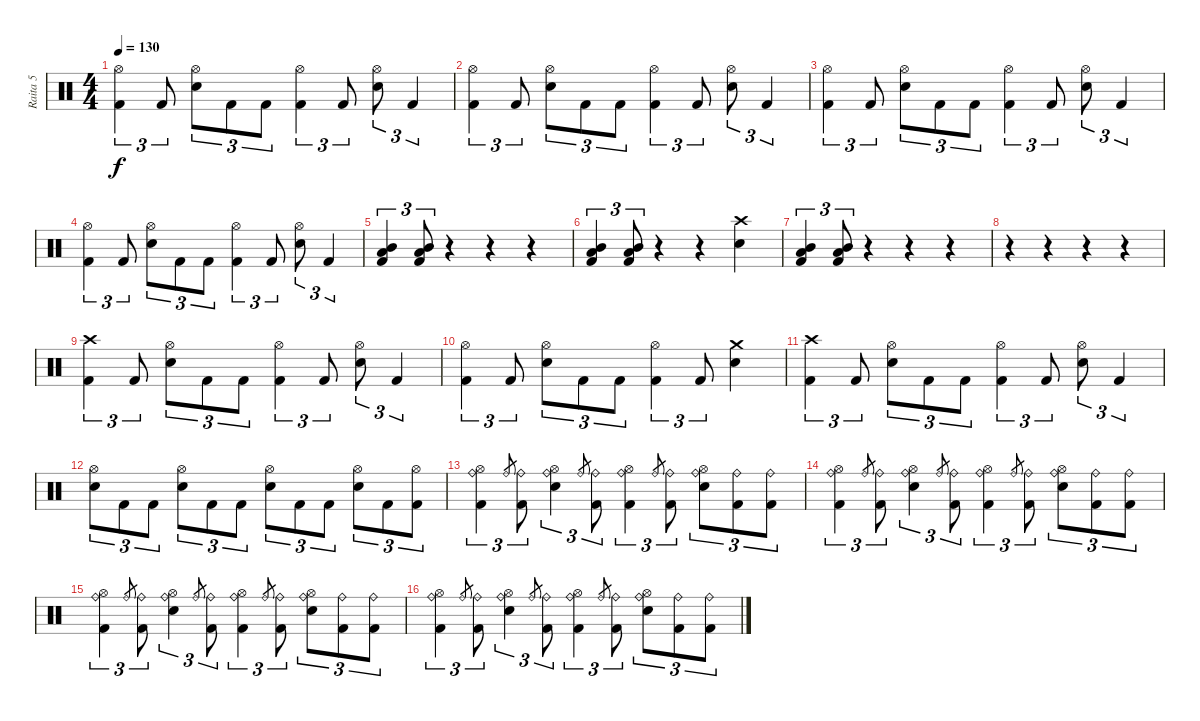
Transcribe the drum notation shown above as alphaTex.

\track ("Raita 5" "Raita 5") {instrument percussion}
\staff {score}
\articulation defaults
\ts (4 4)
\tempo 130
\clef neutral
\ks c
("Hi-Hat (open)" "Kick (hit) 2").4{tu (3 2) dy f} "Kick (hit) 2".8{tu (3 2)} ("Hi-Hat (open)" "Snare (hit) 2").8{tu (3 2)} "Kick (hit) 2".8{tu (3 2)} "Kick (hit) 2".8{tu (3 2)} ("Hi-Hat (open)" "Kick (hit) 2").4{tu (3 2)} "Kick (hit) 2".8{tu (3 2)} ("Hi-Hat (open)" "Snare (hit) 2").8{tu (3 2)} "Kick (hit) 2".4{tu (3 2)} |
("Hi-Hat (open)" "Kick (hit) 2").4{tu (3 2)} "Kick (hit) 2".8{tu (3 2)} ("Hi-Hat (open)" "Snare (hit) 2").8{tu (3 2)} "Kick (hit) 2".8{tu (3 2)} "Kick (hit) 2".8{tu (3 2)} ("Hi-Hat (open)" "Kick (hit) 2").4{tu (3 2)} "Kick (hit) 2".8{tu (3 2)} ("Hi-Hat (open)" "Snare (hit) 2").8{tu (3 2)} "Kick (hit) 2".4{tu (3 2)} |
("Hi-Hat (open)" "Kick (hit) 2").4{tu (3 2)} "Kick (hit) 2".8{tu (3 2)} ("Hi-Hat (open)" "Snare (hit) 2").8{tu (3 2)} "Kick (hit) 2".8{tu (3 2)} "Kick (hit) 2".8{tu (3 2)} ("Hi-Hat (open)" "Kick (hit) 2").4{tu (3 2)} "Kick (hit) 2".8{tu (3 2)} ("Hi-Hat (open)" "Snare (hit) 2").8{tu (3 2)} "Kick (hit) 2".4{tu (3 2)} |
("Hi-Hat (open)" "Kick (hit) 2").4{tu (3 2)} "Kick (hit) 2".8{tu (3 2)} ("Hi-Hat (open)" "Snare (hit) 2").8{tu (3 2)} "Kick (hit) 2".8{tu (3 2)} "Kick (hit) 2".8{tu (3 2)} ("Hi-Hat (open)" "Kick (hit) 2").4{tu (3 2)} "Kick (hit) 2".8{tu (3 2)} ("Hi-Hat (open)" "Snare (hit) 2").8{tu (3 2)} "Kick (hit) 2".4{tu (3 2)} |
("Mid Tom (hit)" "Low Tom (hit)" "Kick (hit) 2").4{tu (3 2)} ("Mid Tom (hit)" "Low Tom (hit)" "Kick (hit) 2").8{tu (3 2)} r.4 r.4 r.4 |
("Mid Tom (hit)" "Low Tom (hit)" "Kick (hit) 2").4{tu (3 2)} ("Mid Tom (hit)" "Low Tom (hit)" "Kick (hit) 2").8{tu (3 2)} r.4 r.4 ("Crash high (hit)" "Snare (hit) 2").4 |
("Mid Tom (hit)" "Low Tom (hit)" "Kick (hit) 2").4{tu (3 2)} ("Mid Tom (hit)" "Low Tom (hit)" "Kick (hit) 2").8{tu (3 2)} r.4 r.4 r.4 |
r.4 r.4 r.4 r.4 |
("Crash high (hit)" "Kick (hit) 2").4{tu (3 2)} "Kick (hit) 2".8{tu (3 2)} ("Hi-Hat (open)" "Snare (hit) 2").8{tu (3 2)} "Kick (hit) 2".8{tu (3 2)} "Kick (hit) 2".8{tu (3 2)} ("Hi-Hat (open)" "Kick (hit) 2").4{tu (3 2)} "Kick (hit) 2".8{tu (3 2)} ("Hi-Hat (open)" "Snare (hit) 2").8{tu (3 2)} "Kick (hit) 2".4{tu (3 2)} |
("Hi-Hat (open)" "Kick (hit) 2").4{tu (3 2)} "Kick (hit) 2".8{tu (3 2)} ("Hi-Hat (open)" "Snare (hit) 2").8{tu (3 2)} "Kick (hit) 2".8{tu (3 2)} "Kick (hit) 2".8{tu (3 2)} ("Hi-Hat (open)" "Kick (hit) 2").4{tu (3 2)} "Kick (hit) 2".8{tu (3 2)} ("Crash medium (hit)" "Snare (hit) 2").4 |
("Crash high (hit)" "Kick (hit) 2").4{tu (3 2)} "Kick (hit) 2".8{tu (3 2)} ("Hi-Hat (open)" "Snare (hit) 2").8{tu (3 2)} "Kick (hit) 2".8{tu (3 2)} "Kick (hit) 2".8{tu (3 2)} ("Hi-Hat (open)" "Kick (hit) 2").4{tu (3 2)} "Kick (hit) 2".8{tu (3 2)} ("Hi-Hat (open)" "Snare (hit) 2").8{tu (3 2)} "Kick (hit) 2".4{tu (3 2)} |
("Hi-Hat (open)" "Snare (hit) 2").8{tu (3 2)} "Kick (hit) 2".8{tu (3 2)} "Kick (hit) 2".8{tu (3 2)} ("Hi-Hat (open)" "Snare (hit) 2").8{tu (3 2)} "Kick (hit) 2".8{tu (3 2)} "Kick (hit) 2".8{tu (3 2)} ("Hi-Hat (open)" "Snare (hit) 2").8{tu (3 2)} "Kick (hit) 2".8{tu (3 2)} "Kick (hit) 2".8{tu (3 2)} ("Hi-Hat (open)" "Snare (hit) 2").8{tu (3 2)} "Kick (hit) 2".8{tu (3 2)} ("Hi-Hat (open)" "Kick (hit) 2").8{tu (3 2)} |
("Ride (bell)" "Hi-Hat (open)" "Kick (hit) 2").4{tu (3 2)} "Ride (bell)".8{gr} ("Ride (bell)" "Kick (hit) 2").8{tu (3 2)} ("Ride (bell)" "Hi-Hat (open)" "Snare (hit) 2").4{tu (3 2)} "Ride (bell)".8{gr} ("Ride (bell)" "Kick (hit) 2").8{tu (3 2)} ("Ride (bell)" "Hi-Hat (open)" "Kick (hit) 2").4{tu (3 2)} "Ride (bell)".8{gr} ("Ride (bell)" "Kick (hit) 2").8{tu (3 2)} ("Ride (bell)" "Hi-Hat (open)" "Snare (hit) 2").8{tu (3 2)} ("Ride (bell)" "Kick (hit) 2").8{tu (3 2)} ("Ride (bell)" "Kick (hit) 2").8{tu (3 2)} |
("Ride (bell)" "Hi-Hat (open)" "Kick (hit) 2").4{tu (3 2)} "Ride (bell)".8{gr} ("Ride (bell)" "Kick (hit) 2").8{tu (3 2)} ("Ride (bell)" "Hi-Hat (open)" "Snare (hit) 2").4{tu (3 2)} "Ride (bell)".8{gr} ("Ride (bell)" "Kick (hit) 2").8{tu (3 2)} ("Ride (bell)" "Hi-Hat (open)" "Kick (hit) 2").4{tu (3 2)} "Ride (bell)".8{gr} ("Ride (bell)" "Kick (hit) 2").8{tu (3 2)} ("Ride (bell)" "Hi-Hat (open)" "Snare (hit) 2").8{tu (3 2)} ("Ride (bell)" "Kick (hit) 2").8{tu (3 2)} ("Ride (bell)" "Kick (hit) 2").8{tu (3 2)} |
("Ride (bell)" "Hi-Hat (open)" "Kick (hit) 2").4{tu (3 2)} "Ride (bell)".8{gr} ("Ride (bell)" "Kick (hit) 2").8{tu (3 2)} ("Ride (bell)" "Hi-Hat (open)" "Snare (hit) 2").4{tu (3 2)} "Ride (bell)".8{gr} ("Ride (bell)" "Kick (hit) 2").8{tu (3 2)} ("Ride (bell)" "Hi-Hat (open)" "Kick (hit) 2").4{tu (3 2)} "Ride (bell)".8{gr} ("Ride (bell)" "Kick (hit) 2").8{tu (3 2)} ("Ride (bell)" "Hi-Hat (open)" "Snare (hit) 2").8{tu (3 2)} ("Ride (bell)" "Kick (hit) 2").8{tu (3 2)} ("Ride (bell)" "Kick (hit) 2").8{tu (3 2)} |
("Ride (bell)" "Hi-Hat (open)" "Kick (hit) 2").4{tu (3 2)} "Ride (bell)".8{gr} ("Ride (bell)" "Kick (hit) 2").8{tu (3 2)} ("Ride (bell)" "Hi-Hat (open)" "Snare (hit) 2").4{tu (3 2)} "Ride (bell)".8{gr} ("Ride (bell)" "Kick (hit) 2").8{tu (3 2)} ("Ride (bell)" "Hi-Hat (open)" "Kick (hit) 2").4{tu (3 2)} "Ride (bell)".8{gr} ("Ride (bell)" "Kick (hit) 2").8{tu (3 2)} ("Ride (bell)" "Hi-Hat (open)" "Snare (hit) 2").8{tu (3 2)} ("Ride (bell)" "Kick (hit) 2").8{tu (3 2)} ("Ride (bell)" "Kick (hit) 2").8{tu (3 2)}
